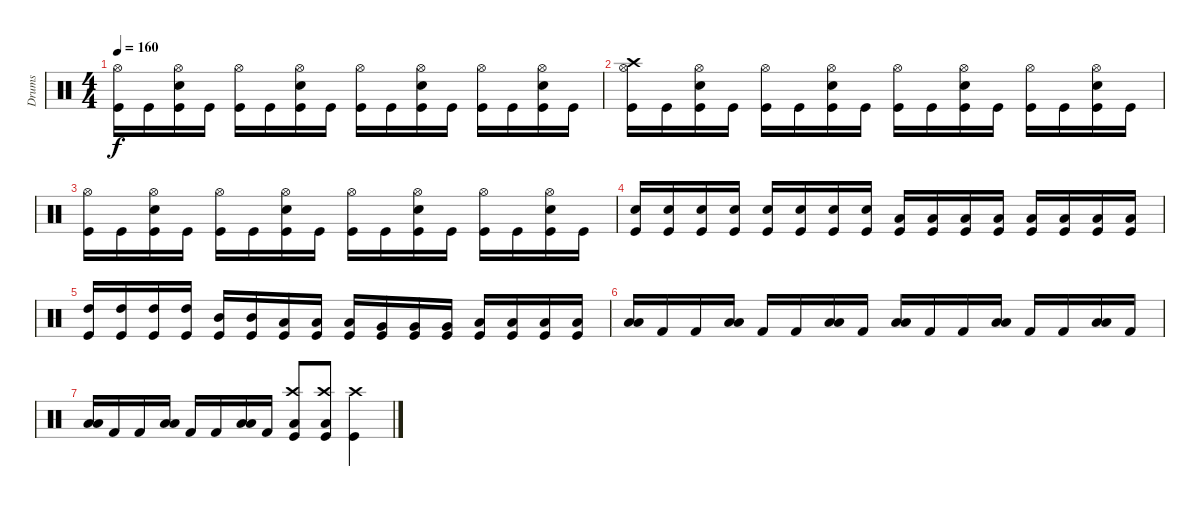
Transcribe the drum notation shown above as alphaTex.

\track ("Drums" "Drums") {instrument percussion}
\staff {score}
\articulation defaults
\ts (4 4)
\tempo 160
\clef neutral
\ks c
("Hi-Hat (open)" "Kick (hit)").16{dy f} "Kick (hit)".16 ("Hi-Hat (open)" "Electric Snare (hit)" "Kick (hit)").16 "Kick (hit)".16 ("Hi-Hat (open)" "Kick (hit)").16 "Kick (hit)".16 ("Hi-Hat (open)" "Electric Snare (hit)" "Kick (hit)").16 "Kick (hit)".16 ("Hi-Hat (open)" "Kick (hit)").16 "Kick (hit)".16 ("Hi-Hat (open)" "Electric Snare (hit)" "Kick (hit)").16 "Kick (hit)".16 ("Hi-Hat (open)" "Kick (hit)").16 "Kick (hit)".16 ("Hi-Hat (open)" "Electric Snare (hit)" "Kick (hit)").16 "Kick (hit)".16 |
("Crash high (hit)" "Hi-Hat (open)" "Kick (hit)").16 "Kick (hit)".16 ("Hi-Hat (open)" "Electric Snare (hit)" "Kick (hit)").16 "Kick (hit)".16 ("Hi-Hat (open)" "Kick (hit)").16 "Kick (hit)".16 ("Hi-Hat (open)" "Electric Snare (hit)" "Kick (hit)").16 "Kick (hit)".16 ("Hi-Hat (open)" "Kick (hit)").16 "Kick (hit)".16 ("Hi-Hat (open)" "Electric Snare (hit)" "Kick (hit)").16 "Kick (hit)".16 ("Hi-Hat (open)" "Kick (hit)").16 "Kick (hit)".16 ("Hi-Hat (open)" "Electric Snare (hit)" "Kick (hit)").16 "Kick (hit)".16 |
("Hi-Hat (open)" "Kick (hit)").16 "Kick (hit)".16 ("Hi-Hat (open)" "Electric Snare (hit)" "Kick (hit)").16 "Kick (hit)".16 ("Hi-Hat (open)" "Kick (hit)").16 "Kick (hit)".16 ("Hi-Hat (open)" "Electric Snare (hit)" "Kick (hit)").16 "Kick (hit)".16 ("Hi-Hat (open)" "Kick (hit)").16 "Kick (hit)".16 ("Hi-Hat (open)" "Electric Snare (hit)" "Kick (hit)").16 "Kick (hit)".16 ("Hi-Hat (open)" "Kick (hit)").16 "Kick (hit)".16 ("Hi-Hat (open)" "Electric Snare (hit)" "Kick (hit)").16 "Kick (hit)".16 |
("Electric Snare (hit)" "Kick (hit)").16 ("Electric Snare (hit)" "Kick (hit)").16 ("Electric Snare (hit)" "Kick (hit)").16 ("Electric Snare (hit)" "Kick (hit)").16 ("Electric Snare (hit)" "Kick (hit)").16 ("Electric Snare (hit)" "Kick (hit)").16 ("Electric Snare (hit)" "Kick (hit)").16 ("Electric Snare (hit)" "Kick (hit)").16 ("Low Tom (hit)" "Kick (hit)").16 ("Low Tom (hit)" "Kick (hit)").16 ("Low Tom (hit)" "Kick (hit)").16 ("Low Tom (hit)" "Kick (hit)").16 ("Low Tom (hit)" "Kick (hit)").16 ("Low Tom (hit)" "Kick (hit)").16 ("Low Tom (hit)" "Kick (hit)").16 ("Low Tom (hit)" "Kick (hit)").16 |
("Kick (hit)" "High Tom (hit)").16 ("Kick (hit)" "High Tom (hit)").16 ("Kick (hit)" "High Tom (hit)").16 ("Kick (hit)" "High Tom (hit)").16 ("Kick (hit)" "Mid Tom (hit)").16 ("Kick (hit)" "Mid Tom (hit)").16 ("Kick (hit)" "Low Tom (hit)").16 ("Kick (hit)" "Low Tom (hit)").16 ("Kick (hit)" "Low Tom (hit)").16 ("Kick (hit)" "Very Low Tom (hit)").16 ("Kick (hit)" "Very Low Tom (hit)").16 ("Kick (hit)" "Very Low Tom (hit)").16 ("Kick (hit)" "Low Floor Tom (hit)").16 ("Kick (hit)" "Low Floor Tom (hit)").16 ("Kick (hit)" "Low Floor Tom (hit)").16 ("Kick (hit)" "Low Floor Tom (hit)").16 |
("Low Tom (hit)" "Low Floor Tom (hit)").16 "Kick (hit) 2".16 "Kick (hit) 2".16 ("Low Tom (hit)" "Low Floor Tom (hit)").16 "Kick (hit) 2".16 "Kick (hit) 2".16 ("Low Tom (hit)" "Low Floor Tom (hit)").16 "Kick (hit) 2".16 ("Low Tom (hit)" "Low Floor Tom (hit)").16 "Kick (hit) 2".16 "Kick (hit) 2".16 ("Low Tom (hit)" "Low Floor Tom (hit)").16 "Kick (hit) 2".16 "Kick (hit) 2".16 ("Low Tom (hit)" "Low Floor Tom (hit)").16 "Kick (hit) 2".16 |
("Low Tom (hit)" "Low Floor Tom (hit)").16 "Kick (hit) 2".16 "Kick (hit) 2".16 ("Low Tom (hit)" "Low Floor Tom (hit)").16 "Kick (hit) 2".16 "Kick (hit) 2".16 ("Low Tom (hit)" "Low Floor Tom (hit)").16 "Kick (hit) 2".16 ("Low Floor Tom (hit)" "Kick (hit)" "Crash high (hit)").8 ("Low Floor Tom (hit)" "Kick (hit)" "Crash high (hit)").8 ("Crash high (hit)" "Kick (hit)").4
